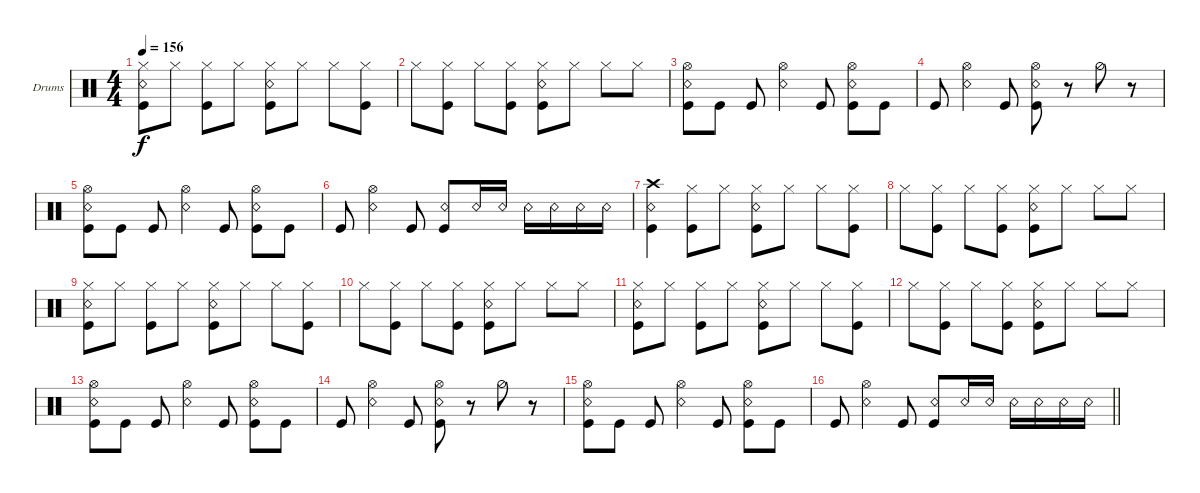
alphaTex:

\bracketExtendMode groupsimilarinstruments
\firstSystemTrackNameOrientation horizontal
\otherSystemsTrackNameOrientation horizontal
\track ("Drums" "Drums") {instrument percussion}
\staff {score}
\articulation defaults
\ts (4 4)
\tempo 156
\clef neutral
\ks c
("Kick (hit)" "Snare (rim shot)" "Hi-Hat (closed)").8{dy f} "Hi-Hat (closed)".8 ("Kick (hit)" "Hi-Hat (closed)").8 "Hi-Hat (closed)".8 ("Kick (hit)" "Snare (rim shot)" "Hi-Hat (closed)").8 "Hi-Hat (closed)".8 "Hi-Hat (closed)".8 ("Kick (hit)" "Hi-Hat (closed)").8 |
"Hi-Hat (closed)".8 ("Kick (hit)" "Hi-Hat (closed)").8 "Hi-Hat (closed)".8 ("Kick (hit)" "Hi-Hat (closed)").8 ("Kick (hit)" "Snare (rim shot)" "Hi-Hat (closed)").8 "Hi-Hat (closed)".8 "Hi-Hat (closed)".8 "Hi-Hat (closed)".8 |
("Kick (hit)" "Snare (rim shot)" "Hi-Hat (open)").8 "Kick (hit)".8 "Kick (hit)".8 ("Snare (rim shot)" "Hi-Hat (open)").4 "Kick (hit)".8 ("Kick (hit)" "Snare (rim shot)" "Hi-Hat (open)").8 "Kick (hit)".8 |
"Kick (hit)".8 ("Snare (rim shot)" "Hi-Hat (open)").4 "Kick (hit)".8 ("Kick (hit)" "Snare (rim shot)" "Hi-Hat (open)").8 r.8 "Hi-Hat (half)".8 r.8 |
("Kick (hit)" "Snare (rim shot)" "Hi-Hat (open)").8 "Kick (hit)".8 "Kick (hit)".8 ("Snare (rim shot)" "Hi-Hat (open)").4 "Kick (hit)".8 ("Kick (hit)" "Snare (rim shot)" "Hi-Hat (open)").8 "Kick (hit)".8 |
"Kick (hit)".8 ("Snare (rim shot)" "Hi-Hat (open)").4 "Kick (hit)".8 ("Kick (hit)" "Snare (rim shot)").8 "Snare (rim shot)".16 "Snare (rim shot)".16 "Snare (rim shot)".16 "Snare (rim shot)".16 "Snare (rim shot)".16 "Snare (rim shot)".16 |
("Kick (hit)" "Snare (rim shot)" "Crash high (hit)").4 ("Kick (hit)" "Hi-Hat (closed)").8 "Hi-Hat (closed)".8 ("Kick (hit)" "Snare (rim shot)" "Hi-Hat (closed)").8 "Hi-Hat (closed)".8 "Hi-Hat (closed)".8 ("Kick (hit)" "Hi-Hat (closed)").8 |
"Hi-Hat (closed)".8 ("Kick (hit)" "Hi-Hat (closed)").8 "Hi-Hat (closed)".8 ("Kick (hit)" "Hi-Hat (closed)").8 ("Kick (hit)" "Snare (rim shot)" "Hi-Hat (closed)").8 "Hi-Hat (closed)".8 "Hi-Hat (closed)".8 "Hi-Hat (closed)".8 |
("Kick (hit)" "Snare (rim shot)" "Hi-Hat (closed)").8 "Hi-Hat (closed)".8 ("Kick (hit)" "Hi-Hat (closed)").8 "Hi-Hat (closed)".8 ("Kick (hit)" "Snare (rim shot)" "Hi-Hat (closed)").8 "Hi-Hat (closed)".8 "Hi-Hat (closed)".8 ("Kick (hit)" "Hi-Hat (closed)").8 |
"Hi-Hat (closed)".8 ("Kick (hit)" "Hi-Hat (closed)").8 "Hi-Hat (closed)".8 ("Kick (hit)" "Hi-Hat (closed)").8 ("Kick (hit)" "Snare (rim shot)" "Hi-Hat (closed)").8 "Hi-Hat (closed)".8 "Hi-Hat (closed)".8 "Hi-Hat (closed)".8 |
("Kick (hit)" "Snare (rim shot)" "Hi-Hat (closed)").8 "Hi-Hat (closed)".8 ("Kick (hit)" "Hi-Hat (closed)").8 "Hi-Hat (closed)".8 ("Kick (hit)" "Snare (rim shot)" "Hi-Hat (closed)").8 "Hi-Hat (closed)".8 "Hi-Hat (closed)".8 ("Kick (hit)" "Hi-Hat (closed)").8 |
"Hi-Hat (closed)".8 ("Kick (hit)" "Hi-Hat (closed)").8 "Hi-Hat (closed)".8 ("Kick (hit)" "Hi-Hat (closed)").8 ("Kick (hit)" "Snare (rim shot)" "Hi-Hat (closed)").8 "Hi-Hat (closed)".8 "Hi-Hat (closed)".8 "Hi-Hat (closed)".8 |
("Kick (hit)" "Snare (rim shot)" "Hi-Hat (open)").8 "Kick (hit)".8 "Kick (hit)".8 ("Snare (rim shot)" "Hi-Hat (open)").4 "Kick (hit)".8 ("Kick (hit)" "Snare (rim shot)" "Hi-Hat (open)").8 "Kick (hit)".8 |
"Kick (hit)".8 ("Snare (rim shot)" "Hi-Hat (open)").4 "Kick (hit)".8 ("Kick (hit)" "Snare (rim shot)" "Hi-Hat (open)").8 r.8 "Hi-Hat (half)".8 r.8 |
("Kick (hit)" "Snare (rim shot)" "Hi-Hat (open)").8 "Kick (hit)".8 "Kick (hit)".8 ("Snare (rim shot)" "Hi-Hat (open)").4 "Kick (hit)".8 ("Kick (hit)" "Snare (rim shot)" "Hi-Hat (open)").8 "Kick (hit)".8 |
\barLineRight lightlight "Kick (hit)".8
("Snare (rim shot)" "Hi-Hat (open)").4 "Kick (hit)".8 ("Kick (hit)" "Snare (rim shot)").8 "Snare (rim shot)".16 "Snare (rim shot)".16 "Snare (rim shot)".16 "Snare (rim shot)".16 "Snare (rim shot)".16 "Snare (rim shot)".16
